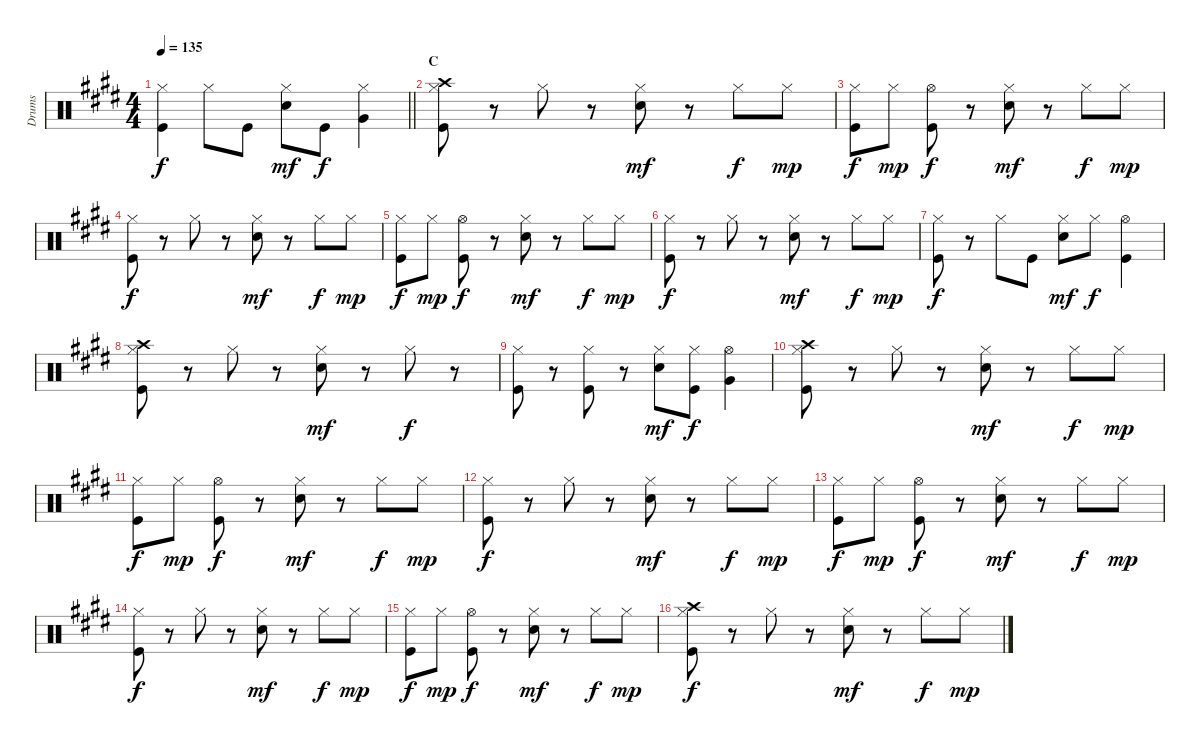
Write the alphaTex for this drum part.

\track ("Drums" "Drums") {instrument percussion}
\staff {score}
\articulation defaults
\ts (4 4)
\tempo 135
\clef neutral
\barLineRight lightlight
\ks e
("Hi-Hat (closed)" "Kick (hit)").4{dy f} "Hi-Hat (closed)".8 "Kick (hit)".8 ("Hi-Hat (closed)" "Electric Snare (hit)").8{dy mf} "Kick (hit)".8{dy f} ("Hi-Hat (closed)" "Very Low Tom (hit)").4 |
\section ("" "C")
("Hi-Hat (closed)" "Crash high (hit)" "Kick (hit)").8 r.8 "Hi-Hat (closed)".8 r.8 ("Hi-Hat (closed)" "Electric Snare (hit)").8{dy mf} r.8 "Hi-Hat (closed)".8{dy f} "Hi-Hat (closed)".8{dy mp} |
("Hi-Hat (closed)" "Kick (hit)").8{dy f} "Hi-Hat (closed)".8{dy mp} ("Hi-Hat (open)" "Kick (hit)").8{dy f} r.8 ("Hi-Hat (closed)" "Electric Snare (hit)").8{dy mf} r.8 "Hi-Hat (closed)".8{dy f} "Hi-Hat (closed)".8{dy mp} |
("Hi-Hat (closed)" "Kick (hit)").8{dy f} r.8 "Hi-Hat (closed)".8 r.8 ("Hi-Hat (closed)" "Electric Snare (hit)").8{dy mf} r.8 "Hi-Hat (closed)".8{dy f} "Hi-Hat (closed)".8{dy mp} |
("Hi-Hat (closed)" "Kick (hit)").8{dy f} "Hi-Hat (closed)".8{dy mp} ("Hi-Hat (open)" "Kick (hit)").8{dy f} r.8 ("Hi-Hat (closed)" "Electric Snare (hit)").8{dy mf} r.8 "Hi-Hat (closed)".8{dy f} "Hi-Hat (closed)".8{dy mp} |
("Hi-Hat (closed)" "Kick (hit)").8{dy f} r.8 "Hi-Hat (closed)".8 r.8 ("Hi-Hat (closed)" "Electric Snare (hit)").8{dy mf} r.8 "Hi-Hat (closed)".8{dy f} "Hi-Hat (closed)".8{dy mp} |
("Hi-Hat (closed)" "Kick (hit)").8{dy f} r.8 "Hi-Hat (closed)".8 "Kick (hit)".8 ("Hi-Hat (closed)" "Electric Snare (hit)").8{dy mf} "Hi-Hat (closed)".8{dy f} ("Hi-Hat (open)" "Kick (hit)").4 |
("Hi-Hat (closed)" "Crash high (hit)" "Kick (hit)").8 r.8 "Hi-Hat (closed)".8 r.8 ("Hi-Hat (closed)" "Electric Snare (hit)").8{dy mf} r.8 "Hi-Hat (closed)".8{dy f} r.8 |
("Hi-Hat (closed)" "Kick (hit)").8 r.8 ("Hi-Hat (closed)" "Kick (hit)").8 r.8 ("Hi-Hat (closed)" "Electric Snare (hit)").8{dy mf} ("Hi-Hat (closed)" "Kick (hit)").8{dy f} ("Hi-Hat (open)" "Very Low Tom (hit)").4 |
("Hi-Hat (closed)" "Crash high (hit)" "Kick (hit)").8 r.8 "Hi-Hat (closed)".8 r.8 ("Hi-Hat (closed)" "Electric Snare (hit)").8{dy mf} r.8 "Hi-Hat (closed)".8{dy f} "Hi-Hat (closed)".8{dy mp} |
("Hi-Hat (closed)" "Kick (hit)").8{dy f} "Hi-Hat (closed)".8{dy mp} ("Hi-Hat (open)" "Kick (hit)").8{dy f} r.8 ("Hi-Hat (closed)" "Electric Snare (hit)").8{dy mf} r.8 "Hi-Hat (closed)".8{dy f} "Hi-Hat (closed)".8{dy mp} |
("Hi-Hat (closed)" "Kick (hit)").8{dy f} r.8 "Hi-Hat (closed)".8 r.8 ("Hi-Hat (closed)" "Electric Snare (hit)").8{dy mf} r.8 "Hi-Hat (closed)".8{dy f} "Hi-Hat (closed)".8{dy mp} |
("Hi-Hat (closed)" "Kick (hit)").8{dy f} "Hi-Hat (closed)".8{dy mp} ("Hi-Hat (open)" "Kick (hit)").8{dy f} r.8 ("Hi-Hat (closed)" "Electric Snare (hit)").8{dy mf} r.8 "Hi-Hat (closed)".8{dy f} "Hi-Hat (closed)".8{dy mp} |
("Hi-Hat (closed)" "Kick (hit)").8{dy f} r.8 "Hi-Hat (closed)".8 r.8 ("Hi-Hat (closed)" "Electric Snare (hit)").8{dy mf} r.8 "Hi-Hat (closed)".8{dy f} "Hi-Hat (closed)".8{dy mp} |
("Hi-Hat (closed)" "Kick (hit)").8{dy f} "Hi-Hat (closed)".8{dy mp} ("Hi-Hat (open)" "Kick (hit)").8{dy f} r.8 ("Hi-Hat (closed)" "Electric Snare (hit)").8{dy mf} r.8 "Hi-Hat (closed)".8{dy f} "Hi-Hat (closed)".8{dy mp} |
("Hi-Hat (closed)" "Crash high (hit)" "Kick (hit)").8{dy f} r.8 "Hi-Hat (closed)".8 r.8 ("Hi-Hat (closed)" "Electric Snare (hit)").8{dy mf} r.8 "Hi-Hat (closed)".8{dy f} "Hi-Hat (closed)".8{dy mp}
